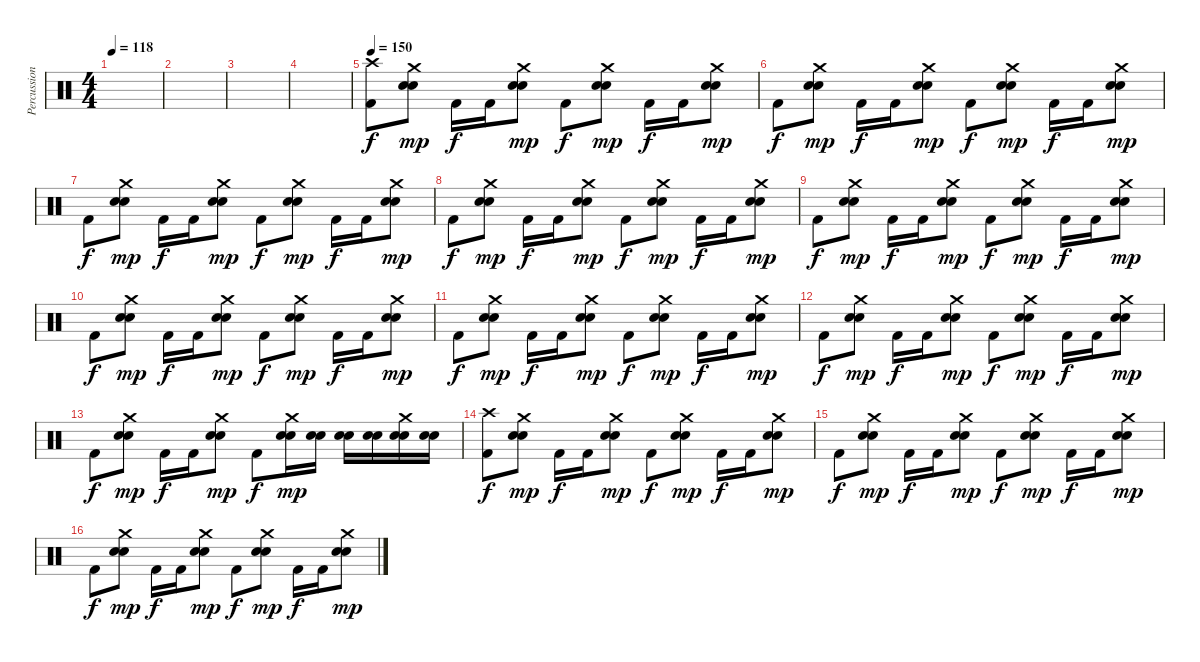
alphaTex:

\track ("Percussion" "Percussion") {instrument percussion}
\staff {score}
\articulation defaults
\ts (4 4)
\tempo 118
\clef neutral
\ks c
|
|
|
|
\tempo 150
("Crash high (hit)" "Kick (hit) 2").8 ("Crash medium (hit)" "Electric Snare (hit)" "Snare (hit) 2").8{dy mp} "Kick (hit) 2".16{dy f} "Kick (hit) 2".16 ("Crash medium (hit)" "Electric Snare (hit)" "Snare (hit) 2").8{dy mp} "Kick (hit) 2".8{dy f} ("Crash medium (hit)" "Electric Snare (hit)" "Snare (hit) 2").8{dy mp} "Kick (hit) 2".16{dy f} "Kick (hit) 2".16 ("Crash medium (hit)" "Electric Snare (hit)" "Snare (hit) 2").8{dy mp} |
"Kick (hit) 2".8{dy f} ("Crash medium (hit)" "Electric Snare (hit)" "Snare (hit) 2").8{dy mp} "Kick (hit) 2".16{dy f} "Kick (hit) 2".16 ("Crash medium (hit)" "Electric Snare (hit)" "Snare (hit) 2").8{dy mp} "Kick (hit) 2".8{dy f} ("Crash medium (hit)" "Electric Snare (hit)" "Snare (hit) 2").8{dy mp} "Kick (hit) 2".16{dy f} "Kick (hit) 2".16 ("Crash medium (hit)" "Electric Snare (hit)" "Snare (hit) 2").8{dy mp} |
"Kick (hit) 2".8{dy f} ("Crash medium (hit)" "Electric Snare (hit)" "Snare (hit) 2").8{dy mp} "Kick (hit) 2".16{dy f} "Kick (hit) 2".16 ("Crash medium (hit)" "Electric Snare (hit)" "Snare (hit) 2").8{dy mp} "Kick (hit) 2".8{dy f} ("Crash medium (hit)" "Electric Snare (hit)" "Snare (hit) 2").8{dy mp} "Kick (hit) 2".16{dy f} "Kick (hit) 2".16 ("Crash medium (hit)" "Electric Snare (hit)" "Snare (hit) 2").8{dy mp} |
"Kick (hit) 2".8{dy f} ("Crash medium (hit)" "Electric Snare (hit)" "Snare (hit) 2").8{dy mp} "Kick (hit) 2".16{dy f} "Kick (hit) 2".16 ("Crash medium (hit)" "Electric Snare (hit)" "Snare (hit) 2").8{dy mp} "Kick (hit) 2".8{dy f} ("Crash medium (hit)" "Electric Snare (hit)" "Snare (hit) 2").8{dy mp} "Kick (hit) 2".16{dy f} "Kick (hit) 2".16 ("Crash medium (hit)" "Electric Snare (hit)" "Snare (hit) 2").8{dy mp} |
"Kick (hit) 2".8{dy f} ("Crash medium (hit)" "Electric Snare (hit)" "Snare (hit) 2").8{dy mp} "Kick (hit) 2".16{dy f} "Kick (hit) 2".16 ("Crash medium (hit)" "Electric Snare (hit)" "Snare (hit) 2").8{dy mp} "Kick (hit) 2".8{dy f} ("Crash medium (hit)" "Electric Snare (hit)" "Snare (hit) 2").8{dy mp} "Kick (hit) 2".16{dy f} "Kick (hit) 2".16 ("Crash medium (hit)" "Electric Snare (hit)" "Snare (hit) 2").8{dy mp} |
"Kick (hit) 2".8{dy f} ("Crash medium (hit)" "Electric Snare (hit)" "Snare (hit) 2").8{dy mp} "Kick (hit) 2".16{dy f} "Kick (hit) 2".16 ("Crash medium (hit)" "Electric Snare (hit)" "Snare (hit) 2").8{dy mp} "Kick (hit) 2".8{dy f} ("Crash medium (hit)" "Electric Snare (hit)" "Snare (hit) 2").8{dy mp} "Kick (hit) 2".16{dy f} "Kick (hit) 2".16 ("Crash medium (hit)" "Electric Snare (hit)" "Snare (hit) 2").8{dy mp} |
"Kick (hit) 2".8{dy f} ("Crash medium (hit)" "Electric Snare (hit)" "Snare (hit) 2").8{dy mp} "Kick (hit) 2".16{dy f} "Kick (hit) 2".16 ("Crash medium (hit)" "Electric Snare (hit)" "Snare (hit) 2").8{dy mp} "Kick (hit) 2".8{dy f} ("Crash medium (hit)" "Electric Snare (hit)" "Snare (hit) 2").8{dy mp} "Kick (hit) 2".16{dy f} "Kick (hit) 2".16 ("Crash medium (hit)" "Electric Snare (hit)" "Snare (hit) 2").8{dy mp} |
"Kick (hit) 2".8{dy f} ("Crash medium (hit)" "Electric Snare (hit)" "Snare (hit) 2").8{dy mp} "Kick (hit) 2".16{dy f} "Kick (hit) 2".16 ("Crash medium (hit)" "Electric Snare (hit)" "Snare (hit) 2").8{dy mp} "Kick (hit) 2".8{dy f} ("Crash medium (hit)" "Electric Snare (hit)" "Snare (hit) 2").8{dy mp} "Kick (hit) 2".16{dy f} "Kick (hit) 2".16 ("Crash medium (hit)" "Electric Snare (hit)" "Snare (hit) 2").8{dy mp} |
"Kick (hit) 2".8{dy f} ("Crash medium (hit)" "Electric Snare (hit)" "Snare (hit) 2").8{dy mp} "Kick (hit) 2".16{dy f} "Kick (hit) 2".16 ("Crash medium (hit)" "Electric Snare (hit)" "Snare (hit) 2").8{dy mp} "Kick (hit) 2".8{dy f} ("Crash medium (hit)" "Electric Snare (hit)" "Snare (hit) 2").16{dy mp} ("Electric Snare (hit)" "Snare (hit) 2").16 ("Electric Snare (hit)" "Snare (hit) 2").16 ("Electric Snare (hit)" "Snare (hit) 2").16 ("Crash medium (hit)" "Electric Snare (hit)" "Snare (hit) 2").16 ("Electric Snare (hit)" "Snare (hit) 2").16 |
("Crash high (hit)" "Kick (hit) 2").8{dy f} ("Crash medium (hit)" "Electric Snare (hit)" "Snare (hit) 2").8{dy mp} "Kick (hit) 2".16{dy f} "Kick (hit) 2".16 ("Crash medium (hit)" "Electric Snare (hit)" "Snare (hit) 2").8{dy mp} "Kick (hit) 2".8{dy f} ("Crash medium (hit)" "Electric Snare (hit)" "Snare (hit) 2").8{dy mp} "Kick (hit) 2".16{dy f} "Kick (hit) 2".16 ("Crash medium (hit)" "Electric Snare (hit)" "Snare (hit) 2").8{dy mp} |
"Kick (hit) 2".8{dy f} ("Crash medium (hit)" "Electric Snare (hit)" "Snare (hit) 2").8{dy mp} "Kick (hit) 2".16{dy f} "Kick (hit) 2".16 ("Crash medium (hit)" "Electric Snare (hit)" "Snare (hit) 2").8{dy mp} "Kick (hit) 2".8{dy f} ("Crash medium (hit)" "Electric Snare (hit)" "Snare (hit) 2").8{dy mp} "Kick (hit) 2".16{dy f} "Kick (hit) 2".16 ("Crash medium (hit)" "Electric Snare (hit)" "Snare (hit) 2").8{dy mp} |
"Kick (hit) 2".8{dy f} ("Crash medium (hit)" "Electric Snare (hit)" "Snare (hit) 2").8{dy mp} "Kick (hit) 2".16{dy f} "Kick (hit) 2".16 ("Crash medium (hit)" "Electric Snare (hit)" "Snare (hit) 2").8{dy mp} "Kick (hit) 2".8{dy f} ("Crash medium (hit)" "Electric Snare (hit)" "Snare (hit) 2").8{dy mp} "Kick (hit) 2".16{dy f} "Kick (hit) 2".16 ("Crash medium (hit)" "Electric Snare (hit)" "Snare (hit) 2").8{dy mp}
